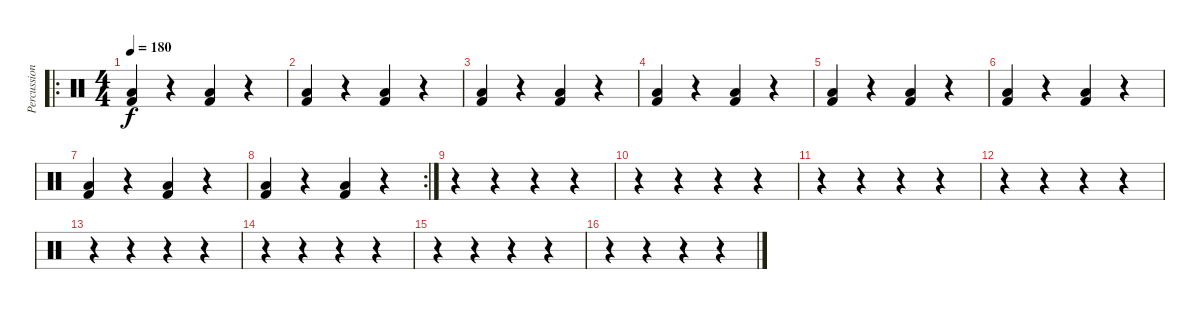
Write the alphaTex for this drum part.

\track ("Percussion" "Percussion") {instrument percussion}
\staff {score}
\articulation defaults
\ro
\ts (4 4)
\tempo 180
\clef neutral
\ks c
("Low Floor Tom (hit)" "Kick (hit) 2").4{dy f} r.4 ("Low Floor Tom (hit)" "Kick (hit) 2").4 r.4 |
("Low Floor Tom (hit)" "Kick (hit) 2").4 r.4 ("Low Floor Tom (hit)" "Kick (hit) 2").4 r.4 |
("Low Floor Tom (hit)" "Kick (hit) 2").4 r.4 ("Low Floor Tom (hit)" "Kick (hit) 2").4 r.4 |
("Low Floor Tom (hit)" "Kick (hit) 2").4 r.4 ("Low Floor Tom (hit)" "Kick (hit) 2").4 r.4 |
("Low Floor Tom (hit)" "Kick (hit) 2").4 r.4 ("Low Floor Tom (hit)" "Kick (hit) 2").4 r.4 |
("Low Floor Tom (hit)" "Kick (hit) 2").4 r.4 ("Low Floor Tom (hit)" "Kick (hit) 2").4 r.4 |
("Low Floor Tom (hit)" "Kick (hit) 2").4 r.4 ("Low Floor Tom (hit)" "Kick (hit) 2").4 r.4 |
\rc 2
("Low Floor Tom (hit)" "Kick (hit) 2").4 r.4 ("Low Floor Tom (hit)" "Kick (hit) 2").4 r.4 |
r.4 r.4 r.4 r.4 |
r.4 r.4 r.4 r.4 |
r.4 r.4 r.4 r.4 |
r.4 r.4 r.4 r.4 |
r.4 r.4 r.4 r.4 |
r.4 r.4 r.4 r.4 |
r.4 r.4 r.4 r.4 |
r.4 r.4 r.4 r.4
